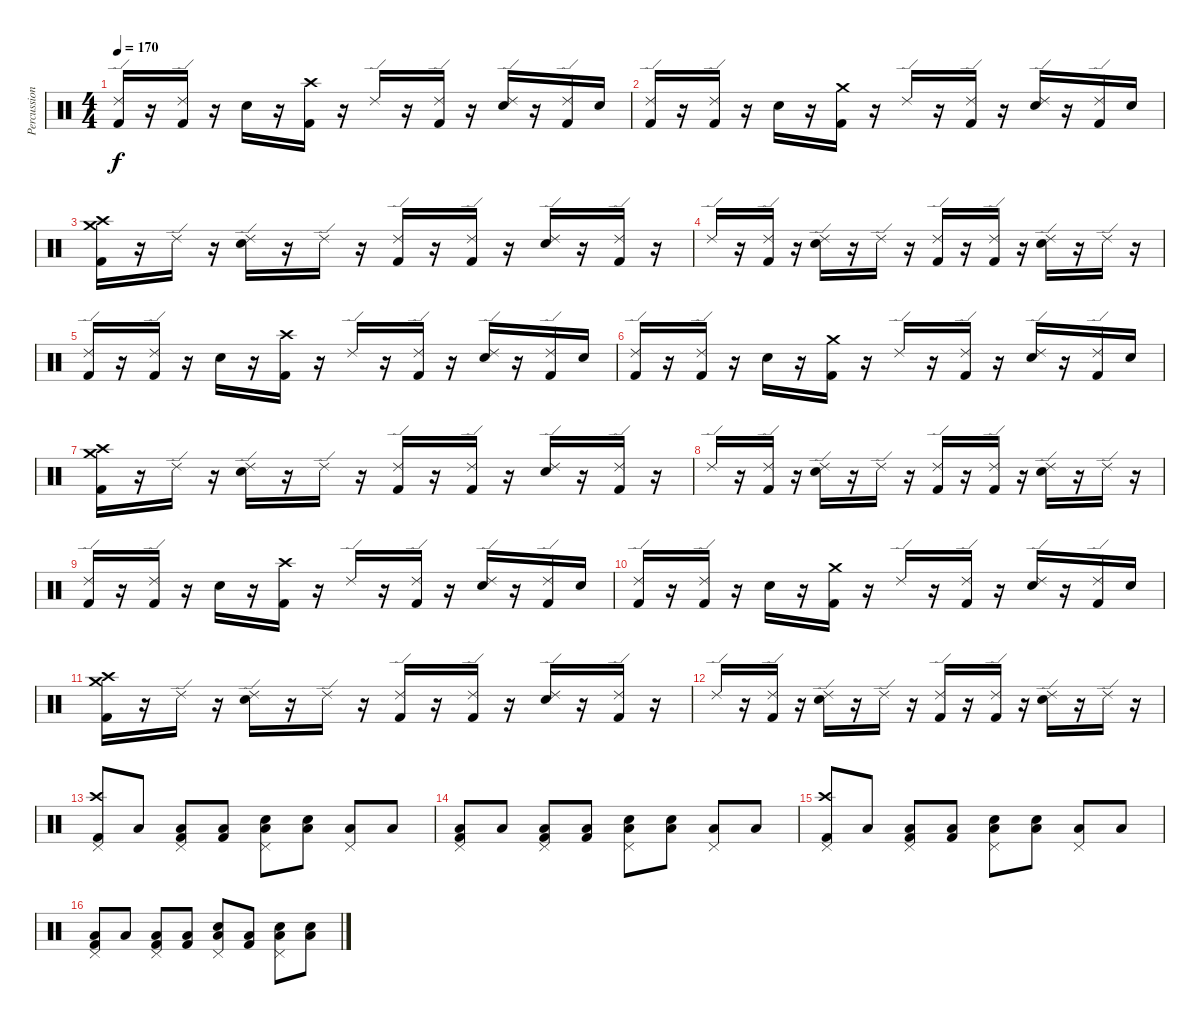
\track ("Percussion" "Percussion") {instrument percussion}
\staff {score}
\articulation defaults
\ts (4 4)
\tempo 170
\clef neutral
\ks c
("Ride (edge) 2" "Kick (hit) 2").16{dy f} r.16 ("Ride (edge) 2" "Kick (hit) 2").16 r.16 "Snare (hit) 2".16 r.16 ("Crash high (hit)" "Kick (hit) 2").16 r.16 "Ride (edge) 2".16 r.16 ("Ride (edge) 2" "Kick (hit) 2").16 r.16 ("Ride (edge) 2" "Snare (hit) 2").16 r.16 ("Ride (edge) 2" "Kick (hit) 2").16 "Snare (hit) 2".16 |
("Ride (edge) 2" "Kick (hit) 2").16 r.16 ("Ride (edge) 2" "Kick (hit) 2").16 r.16 "Snare (hit) 2".16 r.16 ("Crash medium (hit)" "Kick (hit) 2").16 r.16 "Ride (edge) 2".16 r.16 ("Ride (edge) 2" "Kick (hit) 2").16 r.16 ("Ride (edge) 2" "Snare (hit) 2").16 r.16 ("Ride (edge) 2" "Kick (hit) 2").16 "Snare (hit) 2".16 |
("Crash medium (hit)" "Crash high (hit)" "Kick (hit) 2").16 r.16 "Ride (edge) 2".16 r.16 ("Ride (edge) 2" "Snare (hit) 2").16 r.16 "Ride (edge) 2".16 r.16 ("Ride (edge) 2" "Kick (hit) 2").16 r.16 ("Ride (edge) 2" "Kick (hit) 2").16 r.16 ("Ride (edge) 2" "Snare (hit) 2").16 r.16 ("Ride (edge) 2" "Kick (hit) 2").16 r.16 |
"Ride (edge) 2".16 r.16 ("Ride (edge) 2" "Kick (hit) 2").16 r.16 ("Ride (edge) 2" "Snare (hit) 2").16 r.16 "Ride (edge) 2".16 r.16 ("Ride (edge) 2" "Kick (hit) 2").16 r.16 ("Ride (edge) 2" "Kick (hit) 2").16 r.16 ("Ride (edge) 2" "Snare (hit) 2").16 r.16 "Ride (edge) 2".16 r.16 |
("Ride (edge) 2" "Kick (hit) 2").16 r.16 ("Ride (edge) 2" "Kick (hit) 2").16 r.16 "Snare (hit) 2".16 r.16 ("Crash high (hit)" "Kick (hit) 2").16 r.16 "Ride (edge) 2".16 r.16 ("Ride (edge) 2" "Kick (hit) 2").16 r.16 ("Ride (edge) 2" "Snare (hit) 2").16 r.16 ("Ride (edge) 2" "Kick (hit) 2").16 "Snare (hit) 2".16 |
("Ride (edge) 2" "Kick (hit) 2").16 r.16 ("Ride (edge) 2" "Kick (hit) 2").16 r.16 "Snare (hit) 2".16 r.16 ("Crash medium (hit)" "Kick (hit) 2").16 r.16 "Ride (edge) 2".16 r.16 ("Ride (edge) 2" "Kick (hit) 2").16 r.16 ("Ride (edge) 2" "Snare (hit) 2").16 r.16 ("Ride (edge) 2" "Kick (hit) 2").16 "Snare (hit) 2".16 |
("Crash medium (hit)" "Crash high (hit)" "Kick (hit) 2").16 r.16 "Ride (edge) 2".16 r.16 ("Ride (edge) 2" "Snare (hit) 2").16 r.16 "Ride (edge) 2".16 r.16 ("Ride (edge) 2" "Kick (hit) 2").16 r.16 ("Ride (edge) 2" "Kick (hit) 2").16 r.16 ("Ride (edge) 2" "Snare (hit) 2").16 r.16 ("Ride (edge) 2" "Kick (hit) 2").16 r.16 |
"Ride (edge) 2".16 r.16 ("Ride (edge) 2" "Kick (hit) 2").16 r.16 ("Ride (edge) 2" "Snare (hit) 2").16 r.16 "Ride (edge) 2".16 r.16 ("Ride (edge) 2" "Kick (hit) 2").16 r.16 ("Ride (edge) 2" "Kick (hit) 2").16 r.16 ("Ride (edge) 2" "Snare (hit) 2").16 r.16 "Ride (edge) 2".16 r.16 |
("Ride (edge) 2" "Kick (hit) 2").16 r.16 ("Ride (edge) 2" "Kick (hit) 2").16 r.16 "Snare (hit) 2".16 r.16 ("Crash high (hit)" "Kick (hit) 2").16 r.16 "Ride (edge) 2".16 r.16 ("Ride (edge) 2" "Kick (hit) 2").16 r.16 ("Ride (edge) 2" "Snare (hit) 2").16 r.16 ("Ride (edge) 2" "Kick (hit) 2").16 "Snare (hit) 2".16 |
("Ride (edge) 2" "Kick (hit) 2").16 r.16 ("Ride (edge) 2" "Kick (hit) 2").16 r.16 "Snare (hit) 2".16 r.16 ("Crash medium (hit)" "Kick (hit) 2").16 r.16 "Ride (edge) 2".16 r.16 ("Ride (edge) 2" "Kick (hit) 2").16 r.16 ("Ride (edge) 2" "Snare (hit) 2").16 r.16 ("Ride (edge) 2" "Kick (hit) 2").16 "Snare (hit) 2".16 |
("Crash medium (hit)" "Crash high (hit)" "Kick (hit) 2").16 r.16 "Ride (edge) 2".16 r.16 ("Ride (edge) 2" "Snare (hit) 2").16 r.16 "Ride (edge) 2".16 r.16 ("Ride (edge) 2" "Kick (hit) 2").16 r.16 ("Ride (edge) 2" "Kick (hit) 2").16 r.16 ("Ride (edge) 2" "Snare (hit) 2").16 r.16 ("Ride (edge) 2" "Kick (hit) 2").16 r.16 |
"Ride (edge) 2".16 r.16 ("Ride (edge) 2" "Kick (hit) 2").16 r.16 ("Ride (edge) 2" "Snare (hit) 2").16 r.16 "Ride (edge) 2".16 r.16 ("Ride (edge) 2" "Kick (hit) 2").16 r.16 ("Ride (edge) 2" "Kick (hit) 2").16 r.16 ("Ride (edge) 2" "Snare (hit) 2").16 r.16 "Ride (edge) 2".16 r.16 |
("Pedal Hi-Hat (hit)" "Crash high (hit)" "Kick (hit) 2").8 "Low Tom (hit)".8 ("Pedal Hi-Hat (hit)" "Low Tom (hit)" "Kick (hit) 2").8 ("Low Tom (hit)" "Kick (hit) 2").8 ("Pedal Hi-Hat (hit)" "Low Tom (hit)" "Snare (hit) 2").8 ("Low Tom (hit)" "Snare (hit) 2").8 ("Pedal Hi-Hat (hit)" "Low Tom (hit)").8 "Low Tom (hit)".8 |
("Pedal Hi-Hat (hit)" "Low Tom (hit)" "Kick (hit) 2").8 "Low Tom (hit)".8 ("Pedal Hi-Hat (hit)" "Low Tom (hit)" "Kick (hit) 2").8 ("Low Tom (hit)" "Kick (hit) 2").8 ("Pedal Hi-Hat (hit)" "Low Tom (hit)" "Snare (hit) 2").8 ("Low Tom (hit)" "Snare (hit) 2").8 ("Pedal Hi-Hat (hit)" "Low Tom (hit)").8 "Low Tom (hit)".8 |
("Pedal Hi-Hat (hit)" "Crash high (hit)" "Kick (hit) 2").8 "Low Tom (hit)".8 ("Pedal Hi-Hat (hit)" "Low Tom (hit)" "Kick (hit) 2").8 ("Low Tom (hit)" "Kick (hit) 2").8 ("Pedal Hi-Hat (hit)" "Low Tom (hit)" "Snare (hit) 2").8 ("Low Tom (hit)" "Snare (hit) 2").8 ("Pedal Hi-Hat (hit)" "Low Tom (hit)").8 "Low Tom (hit)".8 |
("Pedal Hi-Hat (hit)" "Low Tom (hit)" "Kick (hit) 2").8 "Low Tom (hit)".8 ("Pedal Hi-Hat (hit)" "Low Tom (hit)" "Kick (hit) 2").8 ("Low Tom (hit)" "Kick (hit) 2").8 ("Pedal Hi-Hat (hit)" "Low Tom (hit)" "Snare (hit) 2").8 ("Low Tom (hit)" "Kick (hit) 2").8 ("Pedal Hi-Hat (hit)" "Low Tom (hit)" "Snare (hit) 2").8 ("Low Tom (hit)" "Snare (hit) 2").8
